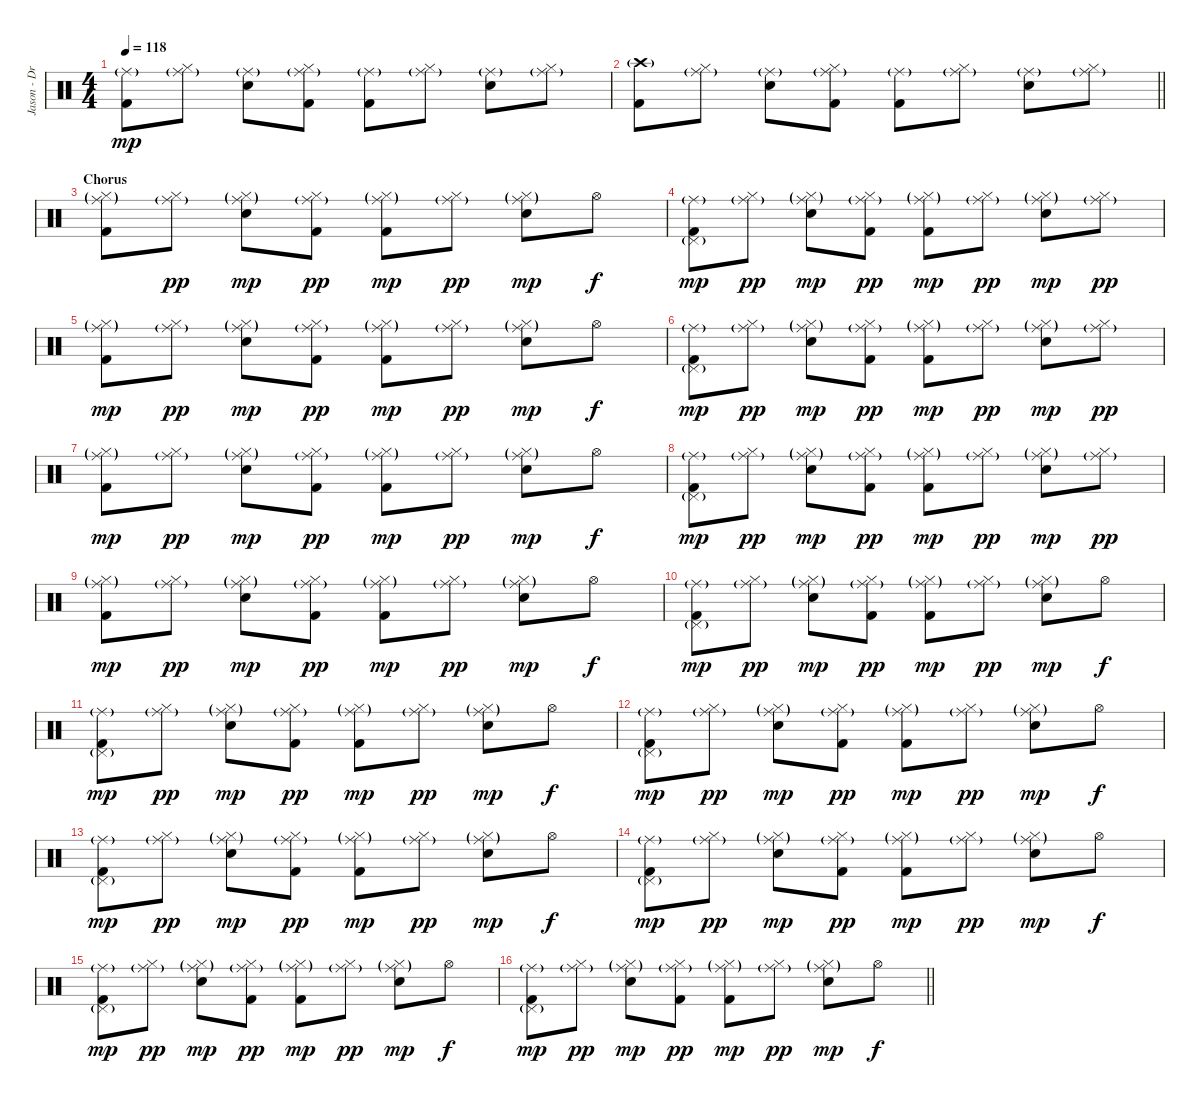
\track ("Jason - Drums" "Jason - Dr") {instrument percussion}
\staff {score}
\articulation defaults
\ts (4 4)
\tempo 118
\clef neutral
\ks c
("Ride (middle)"{g} "Kick (hit) 2").8{dy mp} ("Ride (middle)"{g} "Hi-Hat (closed)").8 ("Ride (middle)"{g} "Electric Snare (hit)").8 ("Ride (middle)"{g} "Hi-Hat (closed)" "Kick (hit) 2").8 ("Ride (middle)"{g} "Kick (hit) 2").8 ("Ride (middle)"{g} "Hi-Hat (closed)").8 ("Ride (middle)"{g} "Electric Snare (hit)").8 ("Ride (middle)"{g} "Hi-Hat (closed)").8 |
\barLineRight lightlight
("Crash high (hit)"{g} "Kick (hit) 2").8 ("Ride (middle)"{g} "Hi-Hat (closed)").8 ("Ride (middle)"{g} "Electric Snare (hit)").8 ("Ride (middle)"{g} "Hi-Hat (closed)" "Kick (hit) 2").8 ("Ride (middle)"{g} "Kick (hit) 2").8 ("Ride (middle)"{g} "Hi-Hat (closed)").8 ("Ride (middle)"{g} "Electric Snare (hit)").8 ("Ride (middle)"{g} "Hi-Hat (closed)").8 |
\section ("" "Chorus")
("Ride (middle)"{g} "Hi-Hat (closed)"{g} "Kick (hit) 2").8 ("Ride (middle)"{g} "Hi-Hat (closed)").8{dy pp} ("Ride (middle)"{g} "Hi-Hat (closed)"{g} "Electric Snare (hit)").8{dy mp} ("Ride (middle)"{g} "Hi-Hat (closed)" "Kick (hit) 2").8{dy pp} ("Ride (middle)"{g} "Hi-Hat (closed)"{g} "Kick (hit) 2").8{dy mp} ("Ride (middle)"{g} "Hi-Hat (closed)").8{dy pp} ("Ride (middle)"{g} "Hi-Hat (closed)"{g} "Electric Snare (hit)").8{dy mp} "Hi-Hat (open)".8{dy f} |
("Ride (middle)"{g} "Pedal Hi-Hat (hit)"{g} "Kick (hit) 2").8{dy mp} ("Ride (middle)"{g} "Hi-Hat (closed)").8{dy pp} ("Ride (middle)"{g} "Hi-Hat (closed)"{g} "Electric Snare (hit)").8{dy mp} ("Ride (middle)"{g} "Hi-Hat (closed)" "Kick (hit) 2").8{dy pp} ("Ride (middle)"{g} "Hi-Hat (closed)"{g} "Kick (hit) 2").8{dy mp} ("Ride (middle)"{g} "Hi-Hat (closed)").8{dy pp} ("Ride (middle)"{g} "Hi-Hat (closed)"{g} "Electric Snare (hit)").8{dy mp} ("Ride (middle)"{g} "Hi-Hat (closed)").8{dy pp} |
("Ride (middle)"{g} "Hi-Hat (closed)"{g} "Kick (hit) 2").8{dy mp} ("Ride (middle)"{g} "Hi-Hat (closed)").8{dy pp} ("Ride (middle)"{g} "Hi-Hat (closed)"{g} "Electric Snare (hit)").8{dy mp} ("Ride (middle)"{g} "Hi-Hat (closed)" "Kick (hit) 2").8{dy pp} ("Ride (middle)"{g} "Hi-Hat (closed)"{g} "Kick (hit) 2").8{dy mp} ("Ride (middle)"{g} "Hi-Hat (closed)").8{dy pp} ("Ride (middle)"{g} "Hi-Hat (closed)"{g} "Electric Snare (hit)").8{dy mp} "Hi-Hat (open)".8{dy f} |
("Ride (middle)"{g} "Pedal Hi-Hat (hit)"{g} "Kick (hit) 2").8{dy mp} ("Ride (middle)"{g} "Hi-Hat (closed)").8{dy pp} ("Ride (middle)"{g} "Hi-Hat (closed)"{g} "Electric Snare (hit)").8{dy mp} ("Ride (middle)"{g} "Hi-Hat (closed)" "Kick (hit) 2").8{dy pp} ("Ride (middle)"{g} "Hi-Hat (closed)"{g} "Kick (hit) 2").8{dy mp} ("Ride (middle)"{g} "Hi-Hat (closed)").8{dy pp} ("Ride (middle)"{g} "Hi-Hat (closed)"{g} "Electric Snare (hit)").8{dy mp} ("Ride (middle)"{g} "Hi-Hat (closed)").8{dy pp} |
("Ride (middle)"{g} "Hi-Hat (closed)"{g} "Kick (hit) 2").8{dy mp} ("Ride (middle)"{g} "Hi-Hat (closed)").8{dy pp} ("Ride (middle)"{g} "Hi-Hat (closed)"{g} "Electric Snare (hit)").8{dy mp} ("Ride (middle)"{g} "Hi-Hat (closed)" "Kick (hit) 2").8{dy pp} ("Ride (middle)"{g} "Hi-Hat (closed)"{g} "Kick (hit) 2").8{dy mp} ("Ride (middle)"{g} "Hi-Hat (closed)").8{dy pp} ("Ride (middle)"{g} "Hi-Hat (closed)"{g} "Electric Snare (hit)").8{dy mp} "Hi-Hat (open)".8{dy f} |
("Ride (middle)"{g} "Pedal Hi-Hat (hit)"{g} "Kick (hit) 2").8{dy mp} ("Ride (middle)"{g} "Hi-Hat (closed)").8{dy pp} ("Ride (middle)"{g} "Hi-Hat (closed)"{g} "Electric Snare (hit)").8{dy mp} ("Ride (middle)"{g} "Hi-Hat (closed)" "Kick (hit) 2").8{dy pp} ("Ride (middle)"{g} "Hi-Hat (closed)"{g} "Kick (hit) 2").8{dy mp} ("Ride (middle)"{g} "Hi-Hat (closed)").8{dy pp} ("Ride (middle)"{g} "Hi-Hat (closed)"{g} "Electric Snare (hit)").8{dy mp} ("Ride (middle)"{g} "Hi-Hat (closed)").8{dy pp} |
("Ride (middle)"{g} "Hi-Hat (closed)"{g} "Kick (hit) 2").8{dy mp} ("Ride (middle)"{g} "Hi-Hat (closed)").8{dy pp} ("Ride (middle)"{g} "Hi-Hat (closed)"{g} "Electric Snare (hit)").8{dy mp} ("Ride (middle)"{g} "Hi-Hat (closed)" "Kick (hit) 2").8{dy pp} ("Ride (middle)"{g} "Hi-Hat (closed)"{g} "Kick (hit) 2").8{dy mp} ("Ride (middle)"{g} "Hi-Hat (closed)").8{dy pp} ("Ride (middle)"{g} "Hi-Hat (closed)"{g} "Electric Snare (hit)").8{dy mp} "Hi-Hat (open)".8{dy f} |
("Ride (middle)"{g} "Pedal Hi-Hat (hit)"{g} "Kick (hit) 2").8{dy mp} ("Ride (middle)"{g} "Hi-Hat (closed)").8{dy pp} ("Ride (middle)"{g} "Hi-Hat (closed)"{g} "Electric Snare (hit)").8{dy mp} ("Ride (middle)"{g} "Hi-Hat (closed)" "Kick (hit) 2").8{dy pp} ("Ride (middle)"{g} "Hi-Hat (closed)"{g} "Kick (hit) 2").8{dy mp} ("Ride (middle)"{g} "Hi-Hat (closed)").8{dy pp} ("Ride (middle)"{g} "Hi-Hat (closed)"{g} "Electric Snare (hit)").8{dy mp} "Hi-Hat (open)".8{dy f} |
("Ride (middle)"{g} "Pedal Hi-Hat (hit)"{g} "Kick (hit) 2").8{dy mp} ("Ride (middle)"{g} "Hi-Hat (closed)").8{dy pp} ("Ride (middle)"{g} "Hi-Hat (closed)"{g} "Electric Snare (hit)").8{dy mp} ("Ride (middle)"{g} "Hi-Hat (closed)" "Kick (hit) 2").8{dy pp} ("Ride (middle)"{g} "Hi-Hat (closed)"{g} "Kick (hit) 2").8{dy mp} ("Ride (middle)"{g} "Hi-Hat (closed)").8{dy pp} ("Ride (middle)"{g} "Hi-Hat (closed)"{g} "Electric Snare (hit)").8{dy mp} "Hi-Hat (open)".8{dy f} |
("Ride (middle)"{g} "Pedal Hi-Hat (hit)"{g} "Kick (hit) 2").8{dy mp} ("Ride (middle)"{g} "Hi-Hat (closed)").8{dy pp} ("Ride (middle)"{g} "Hi-Hat (closed)"{g} "Electric Snare (hit)").8{dy mp} ("Ride (middle)"{g} "Hi-Hat (closed)" "Kick (hit) 2").8{dy pp} ("Ride (middle)"{g} "Hi-Hat (closed)"{g} "Kick (hit) 2").8{dy mp} ("Ride (middle)"{g} "Hi-Hat (closed)").8{dy pp} ("Ride (middle)"{g} "Hi-Hat (closed)"{g} "Electric Snare (hit)").8{dy mp} "Hi-Hat (open)".8{dy f} |
("Ride (middle)"{g} "Pedal Hi-Hat (hit)"{g} "Kick (hit) 2").8{dy mp} ("Ride (middle)"{g} "Hi-Hat (closed)").8{dy pp} ("Ride (middle)"{g} "Hi-Hat (closed)"{g} "Electric Snare (hit)").8{dy mp} ("Ride (middle)"{g} "Hi-Hat (closed)" "Kick (hit) 2").8{dy pp} ("Ride (middle)"{g} "Hi-Hat (closed)"{g} "Kick (hit) 2").8{dy mp} ("Ride (middle)"{g} "Hi-Hat (closed)").8{dy pp} ("Ride (middle)"{g} "Hi-Hat (closed)"{g} "Electric Snare (hit)").8{dy mp} "Hi-Hat (open)".8{dy f} |
("Ride (middle)"{g} "Pedal Hi-Hat (hit)"{g} "Kick (hit) 2").8{dy mp} ("Ride (middle)"{g} "Hi-Hat (closed)").8{dy pp} ("Ride (middle)"{g} "Hi-Hat (closed)"{g} "Electric Snare (hit)").8{dy mp} ("Ride (middle)"{g} "Hi-Hat (closed)" "Kick (hit) 2").8{dy pp} ("Ride (middle)"{g} "Hi-Hat (closed)"{g} "Kick (hit) 2").8{dy mp} ("Ride (middle)"{g} "Hi-Hat (closed)").8{dy pp} ("Ride (middle)"{g} "Hi-Hat (closed)"{g} "Electric Snare (hit)").8{dy mp} "Hi-Hat (open)".8{dy f} |
("Ride (middle)"{g} "Pedal Hi-Hat (hit)"{g} "Kick (hit) 2").8{dy mp} ("Ride (middle)"{g} "Hi-Hat (closed)").8{dy pp} ("Ride (middle)"{g} "Hi-Hat (closed)"{g} "Electric Snare (hit)").8{dy mp} ("Ride (middle)"{g} "Hi-Hat (closed)" "Kick (hit) 2").8{dy pp} ("Ride (middle)"{g} "Hi-Hat (closed)"{g} "Kick (hit) 2").8{dy mp} ("Ride (middle)"{g} "Hi-Hat (closed)").8{dy pp} ("Ride (middle)"{g} "Hi-Hat (closed)"{g} "Electric Snare (hit)").8{dy mp} "Hi-Hat (open)".8{dy f} |
\barLineRight lightlight
("Ride (middle)"{g} "Pedal Hi-Hat (hit)"{g} "Kick (hit) 2").8{dy mp} ("Ride (middle)"{g} "Hi-Hat (closed)").8{dy pp} ("Ride (middle)"{g} "Hi-Hat (closed)"{g} "Electric Snare (hit)").8{dy mp} ("Ride (middle)"{g} "Hi-Hat (closed)" "Kick (hit) 2").8{dy pp} ("Ride (middle)"{g} "Hi-Hat (closed)"{g} "Kick (hit) 2").8{dy mp} ("Ride (middle)"{g} "Hi-Hat (closed)").8{dy pp} ("Ride (middle)"{g} "Hi-Hat (closed)"{g} "Electric Snare (hit)").8{dy mp} "Hi-Hat (open)".8{dy f}
